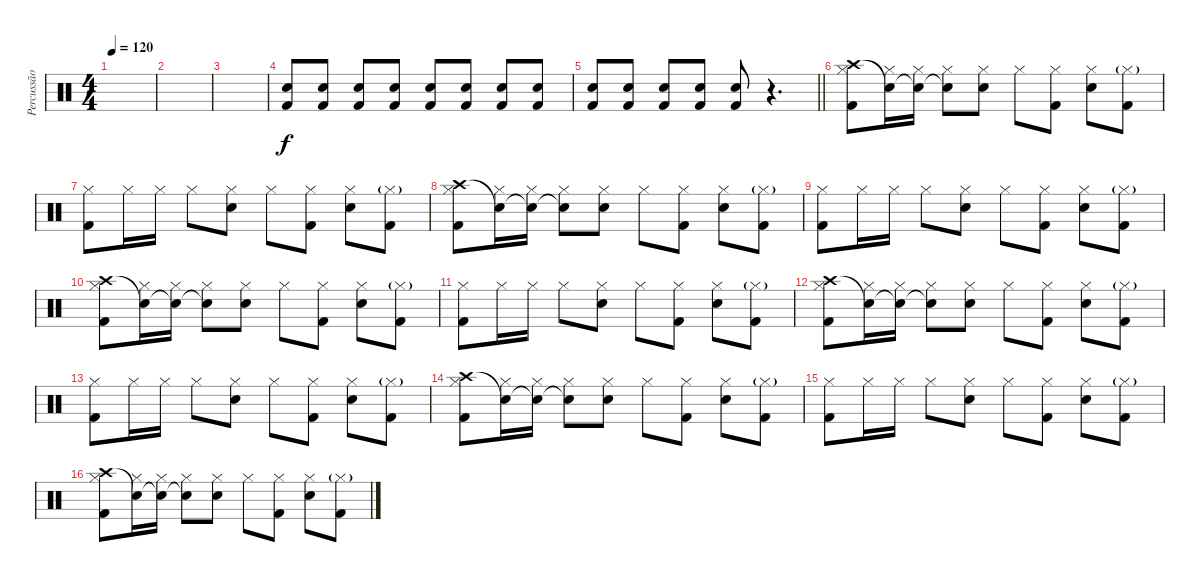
\track ("Percussão" "Percussão") {instrument percussion}
\staff {score}
\articulation defaults
\ts (4 4)
\tempo 120
\clef neutral
\ks c
|
|
|
("Electric Snare (hit)" "Kick (hit) 2").8{volume 10} ("Electric Snare (hit)" "Kick (hit) 2").8{volume 16} ("Electric Snare (hit)" "Kick (hit) 2").8 ("Electric Snare (hit)" "Kick (hit) 2").8 ("Electric Snare (hit)" "Kick (hit) 2").8 ("Electric Snare (hit)" "Kick (hit) 2").8 ("Electric Snare (hit)" "Kick (hit) 2").8 ("Electric Snare (hit)" "Kick (hit) 2").8 |
\barLineRight lightlight
("Electric Snare (hit)" "Kick (hit) 2").8 ("Electric Snare (hit)" "Kick (hit) 2").8 ("Electric Snare (hit)" "Kick (hit) 2").8 ("Electric Snare (hit)" "Kick (hit) 2").8 ("Electric Snare (hit)" "Kick (hit) 2").8 r.4{d} |
("Hi-Hat (closed)" "Crash high (hit)" "Kick (hit) 2").8 ("Hi-Hat (closed)" "Snare (hit)"{t}).16 ("Hi-Hat (closed)" "Snare (hit)"{t}).16 ("Hi-Hat (closed)" "Snare (hit)"{t}).8 ("Hi-Hat (closed)" "Electric Snare (hit)").8 "Hi-Hat (closed)".8 ("Hi-Hat (closed)" "Kick (hit) 2").8 ("Hi-Hat (closed)" "Electric Snare (hit)").8 ("Hi-Hat (closed)"{g} "Kick (hit) 2").8 |
("Hi-Hat (closed)" "Kick (hit) 2").8 "Hi-Hat (closed)".16 "Hi-Hat (closed)".16 "Hi-Hat (closed)".8 ("Hi-Hat (closed)" "Electric Snare (hit)").8 "Hi-Hat (closed)".8 ("Hi-Hat (closed)" "Kick (hit) 2").8 ("Hi-Hat (closed)" "Electric Snare (hit)").8 ("Hi-Hat (closed)"{g} "Kick (hit) 2").8 |
("Hi-Hat (closed)" "Crash high (hit)" "Kick (hit) 2").8 ("Hi-Hat (closed)" "Snare (hit)"{t}).16 ("Hi-Hat (closed)" "Snare (hit)"{t}).16 ("Hi-Hat (closed)" "Snare (hit)"{t}).8 ("Hi-Hat (closed)" "Electric Snare (hit)").8 "Hi-Hat (closed)".8 ("Hi-Hat (closed)" "Kick (hit) 2").8 ("Hi-Hat (closed)" "Electric Snare (hit)").8 ("Hi-Hat (closed)"{g} "Kick (hit) 2").8 |
("Hi-Hat (closed)" "Kick (hit) 2").8 "Hi-Hat (closed)".16 "Hi-Hat (closed)".16 "Hi-Hat (closed)".8 ("Hi-Hat (closed)" "Electric Snare (hit)").8 "Hi-Hat (closed)".8 ("Hi-Hat (closed)" "Kick (hit) 2").8 ("Hi-Hat (closed)" "Electric Snare (hit)").8 ("Hi-Hat (closed)"{g} "Kick (hit) 2").8 |
("Hi-Hat (closed)" "Crash high (hit)" "Kick (hit) 2").8 ("Hi-Hat (closed)" "Snare (hit)"{t}).16 ("Hi-Hat (closed)" "Snare (hit)"{t}).16 ("Hi-Hat (closed)" "Snare (hit)"{t}).8 ("Hi-Hat (closed)" "Electric Snare (hit)").8 "Hi-Hat (closed)".8 ("Hi-Hat (closed)" "Kick (hit) 2").8 ("Hi-Hat (closed)" "Electric Snare (hit)").8 ("Hi-Hat (closed)"{g} "Kick (hit) 2").8 |
("Hi-Hat (closed)" "Kick (hit) 2").8 "Hi-Hat (closed)".16 "Hi-Hat (closed)".16 "Hi-Hat (closed)".8 ("Hi-Hat (closed)" "Electric Snare (hit)").8 "Hi-Hat (closed)".8 ("Hi-Hat (closed)" "Kick (hit) 2").8 ("Hi-Hat (closed)" "Electric Snare (hit)").8 ("Hi-Hat (closed)"{g} "Kick (hit) 2").8 |
("Hi-Hat (closed)" "Crash high (hit)" "Kick (hit) 2").8 ("Hi-Hat (closed)" "Snare (hit)"{t}).16 ("Hi-Hat (closed)" "Snare (hit)"{t}).16 ("Hi-Hat (closed)" "Snare (hit)"{t}).8 ("Hi-Hat (closed)" "Electric Snare (hit)").8 "Hi-Hat (closed)".8 ("Hi-Hat (closed)" "Kick (hit) 2").8 ("Hi-Hat (closed)" "Electric Snare (hit)").8 ("Hi-Hat (closed)"{g} "Kick (hit) 2").8 |
("Hi-Hat (closed)" "Kick (hit) 2").8 "Hi-Hat (closed)".16 "Hi-Hat (closed)".16 "Hi-Hat (closed)".8 ("Hi-Hat (closed)" "Electric Snare (hit)").8 "Hi-Hat (closed)".8 ("Hi-Hat (closed)" "Kick (hit) 2").8 ("Hi-Hat (closed)" "Electric Snare (hit)").8 ("Hi-Hat (closed)"{g} "Kick (hit) 2").8 |
("Hi-Hat (closed)" "Crash high (hit)" "Kick (hit) 2").8 ("Hi-Hat (closed)" "Snare (hit)"{t}).16 ("Hi-Hat (closed)" "Snare (hit)"{t}).16 ("Hi-Hat (closed)" "Snare (hit)"{t}).8 ("Hi-Hat (closed)" "Electric Snare (hit)").8 "Hi-Hat (closed)".8 ("Hi-Hat (closed)" "Kick (hit) 2").8 ("Hi-Hat (closed)" "Electric Snare (hit)").8 ("Hi-Hat (closed)"{g} "Kick (hit) 2").8 |
("Hi-Hat (closed)" "Kick (hit) 2").8 "Hi-Hat (closed)".16 "Hi-Hat (closed)".16 "Hi-Hat (closed)".8 ("Hi-Hat (closed)" "Electric Snare (hit)").8 "Hi-Hat (closed)".8 ("Hi-Hat (closed)" "Kick (hit) 2").8 ("Hi-Hat (closed)" "Electric Snare (hit)").8 ("Hi-Hat (closed)"{g} "Kick (hit) 2").8 |
("Hi-Hat (closed)" "Crash high (hit)" "Kick (hit) 2").8 ("Hi-Hat (closed)" "Snare (hit)"{t}).16 ("Hi-Hat (closed)" "Snare (hit)"{t}).16 ("Hi-Hat (closed)" "Snare (hit)"{t}).8 ("Hi-Hat (closed)" "Electric Snare (hit)").8 "Hi-Hat (closed)".8 ("Hi-Hat (closed)" "Kick (hit) 2").8 ("Hi-Hat (closed)" "Electric Snare (hit)").8 ("Hi-Hat (closed)"{g} "Kick (hit) 2").8
